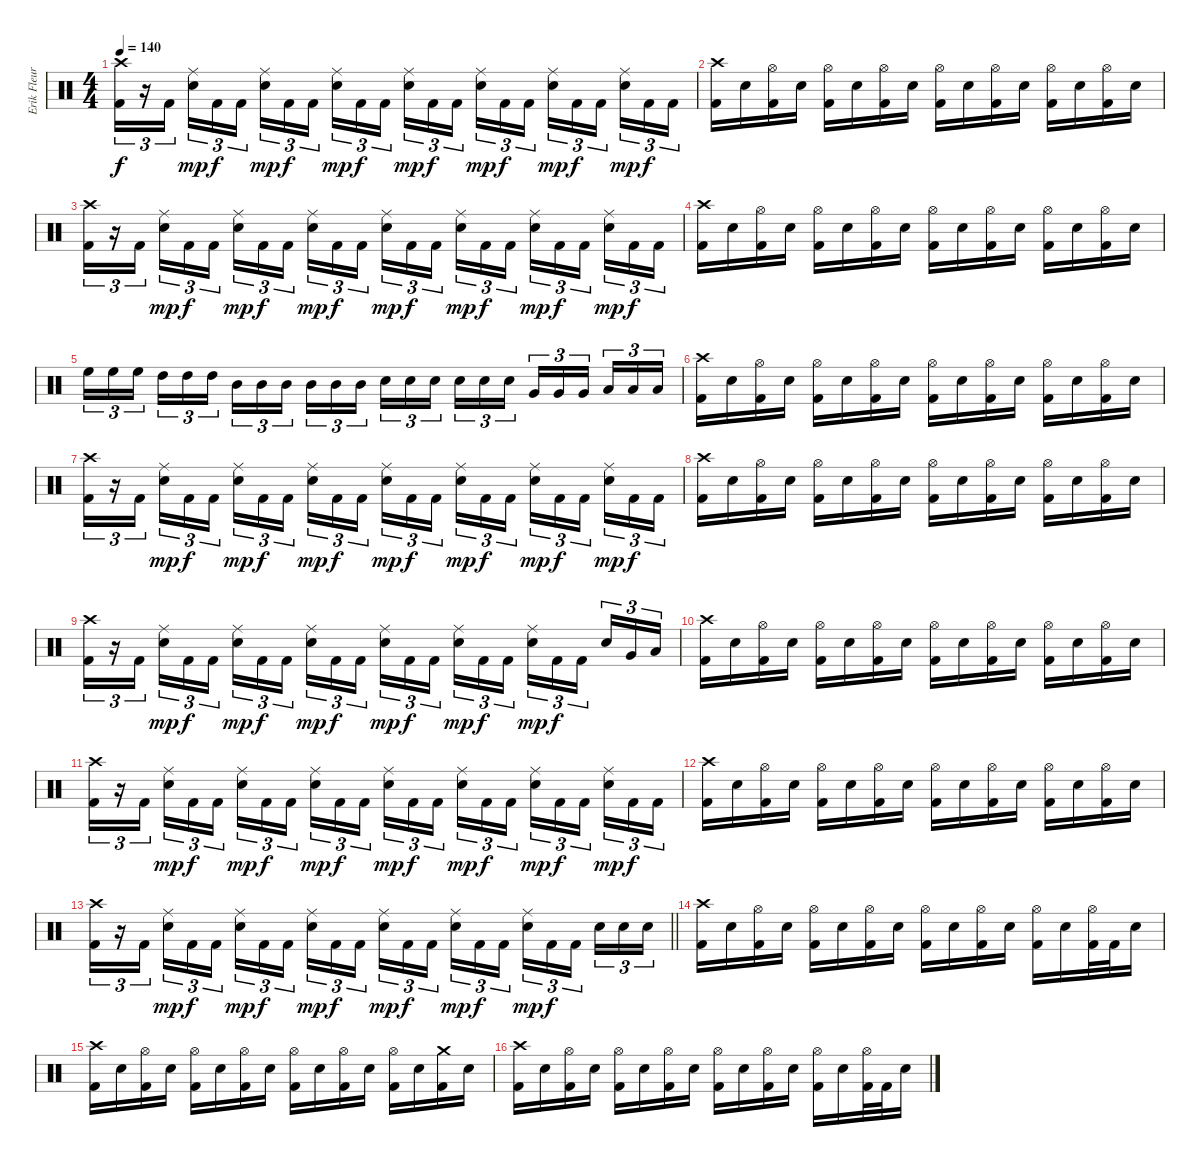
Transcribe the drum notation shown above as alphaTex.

\track ("Erik Fleuren" "Erik Fleur") {instrument percussion}
\staff {score}
\articulation defaults
\ts (4 4)
\tempo 140
\clef neutral
\ks c
("Crash high (hit)" "Kick (hit) 2").16{tu (3 2) dy f} r.16{tu (3 2)} "Kick (hit) 2".16{tu (3 2) beam splitsecondary} ("Ride (middle)" "Electric Snare (hit)").16{tu (3 2) dy mp} "Kick (hit) 2".16{tu (3 2) dy f} "Kick (hit) 2".16{tu (3 2)} ("Ride (middle)" "Electric Snare (hit)").16{tu (3 2) dy mp} "Kick (hit) 2".16{tu (3 2) dy f} "Kick (hit) 2".16{tu (3 2) beam splitsecondary} ("Ride (middle)" "Electric Snare (hit)").16{tu (3 2) dy mp} "Kick (hit) 2".16{tu (3 2) dy f} "Kick (hit) 2".16{tu (3 2)} ("Ride (middle)" "Electric Snare (hit)").16{tu (3 2) dy mp} "Kick (hit) 2".16{tu (3 2) dy f} "Kick (hit) 2".16{tu (3 2) beam splitsecondary} ("Ride (middle)" "Electric Snare (hit)").16{tu (3 2) dy mp} "Kick (hit) 2".16{tu (3 2) dy f} "Kick (hit) 2".16{tu (3 2)} ("Ride (middle)" "Electric Snare (hit)").16{tu (3 2) dy mp} "Kick (hit) 2".16{tu (3 2) dy f} "Kick (hit) 2".16{tu (3 2) beam splitsecondary} ("Ride (middle)" "Electric Snare (hit)").16{tu (3 2) dy mp} "Kick (hit) 2".16{tu (3 2) dy f} "Kick (hit) 2".16{tu (3 2)} |
("Crash high (hit)" "Kick (hit) 2").16 "Electric Snare (hit)".16 ("Hi-Hat (open)" "Kick (hit) 2").16 "Electric Snare (hit)".16 ("Hi-Hat (open)" "Kick (hit) 2").16 "Electric Snare (hit)".16 ("Hi-Hat (open)" "Kick (hit) 2").16 "Electric Snare (hit)".16 ("Hi-Hat (open)" "Kick (hit) 2").16 "Electric Snare (hit)".16 ("Hi-Hat (open)" "Kick (hit) 2").16 "Electric Snare (hit)".16 ("Hi-Hat (open)" "Kick (hit) 2").16 "Electric Snare (hit)".16 ("Hi-Hat (open)" "Kick (hit) 2").16 "Electric Snare (hit)".16 |
("Crash high (hit)" "Kick (hit) 2").16{tu (3 2)} r.16{tu (3 2)} "Kick (hit) 2".16{tu (3 2) beam splitsecondary} ("Ride (middle)" "Electric Snare (hit)").16{tu (3 2) dy mp} "Kick (hit) 2".16{tu (3 2) dy f} "Kick (hit) 2".16{tu (3 2)} ("Ride (middle)" "Electric Snare (hit)").16{tu (3 2) dy mp} "Kick (hit) 2".16{tu (3 2) dy f} "Kick (hit) 2".16{tu (3 2) beam splitsecondary} ("Ride (middle)" "Electric Snare (hit)").16{tu (3 2) dy mp} "Kick (hit) 2".16{tu (3 2) dy f} "Kick (hit) 2".16{tu (3 2)} ("Ride (middle)" "Electric Snare (hit)").16{tu (3 2) dy mp} "Kick (hit) 2".16{tu (3 2) dy f} "Kick (hit) 2".16{tu (3 2) beam splitsecondary} ("Ride (middle)" "Electric Snare (hit)").16{tu (3 2) dy mp} "Kick (hit) 2".16{tu (3 2) dy f} "Kick (hit) 2".16{tu (3 2)} ("Ride (middle)" "Electric Snare (hit)").16{tu (3 2) dy mp} "Kick (hit) 2".16{tu (3 2) dy f} "Kick (hit) 2".16{tu (3 2) beam splitsecondary} ("Ride (middle)" "Electric Snare (hit)").16{tu (3 2) dy mp} "Kick (hit) 2".16{tu (3 2) dy f} "Kick (hit) 2".16{tu (3 2)} |
("Crash high (hit)" "Kick (hit) 2").16 "Electric Snare (hit)".16 ("Hi-Hat (open)" "Kick (hit) 2").16 "Electric Snare (hit)".16 ("Hi-Hat (open)" "Kick (hit) 2").16 "Electric Snare (hit)".16 ("Hi-Hat (open)" "Kick (hit) 2").16 "Electric Snare (hit)".16 ("Hi-Hat (open)" "Kick (hit) 2").16 "Electric Snare (hit)".16 ("Hi-Hat (open)" "Kick (hit) 2").16 "Electric Snare (hit)".16 ("Hi-Hat (open)" "Kick (hit) 2").16 "Electric Snare (hit)".16 ("Hi-Hat (open)" "Kick (hit) 2").16 "Electric Snare (hit)".16 |
"High Floor Tom (hit)".16{tu (3 2)} "High Floor Tom (hit)".16{tu (3 2)} "High Floor Tom (hit)".16{tu (3 2) beam splitsecondary} "High Tom (hit)".16{tu (3 2)} "High Tom (hit)".16{tu (3 2)} "High Tom (hit)".16{tu (3 2)} "Mid Tom (hit)".16{tu (3 2)} "Mid Tom (hit)".16{tu (3 2)} "Mid Tom (hit)".16{tu (3 2) beam splitsecondary} "Mid Tom (hit)".16{tu (3 2)} "Mid Tom (hit)".16{tu (3 2)} "Mid Tom (hit)".16{tu (3 2)} "Electric Snare (hit)".16{tu (3 2)} "Electric Snare (hit)".16{tu (3 2)} "Electric Snare (hit)".16{tu (3 2) beam splitsecondary} "Electric Snare (hit)".16{tu (3 2)} "Electric Snare (hit)".16{tu (3 2)} "Electric Snare (hit)".16{tu (3 2)} "Very Low Tom (hit)".16{tu (3 2)} "Very Low Tom (hit)".16{tu (3 2)} "Very Low Tom (hit)".16{tu (3 2) beam splitsecondary} "Low Floor Tom (hit)".16{tu (3 2)} "Low Floor Tom (hit)".16{tu (3 2)} "Low Floor Tom (hit)".16{tu (3 2)} |
("Crash high (hit)" "Kick (hit) 2").16 "Electric Snare (hit)".16 ("Hi-Hat (open)" "Kick (hit) 2").16 "Electric Snare (hit)".16 ("Hi-Hat (open)" "Kick (hit) 2").16 "Electric Snare (hit)".16 ("Hi-Hat (open)" "Kick (hit) 2").16 "Electric Snare (hit)".16 ("Hi-Hat (open)" "Kick (hit) 2").16 "Electric Snare (hit)".16 ("Hi-Hat (open)" "Kick (hit) 2").16 "Electric Snare (hit)".16 ("Hi-Hat (open)" "Kick (hit) 2").16 "Electric Snare (hit)".16 ("Hi-Hat (open)" "Kick (hit) 2").16 "Electric Snare (hit)".16 |
("Crash high (hit)" "Kick (hit) 2").16{tu (3 2)} r.16{tu (3 2)} "Kick (hit) 2".16{tu (3 2) beam splitsecondary} ("Ride (middle)" "Electric Snare (hit)").16{tu (3 2) dy mp} "Kick (hit) 2".16{tu (3 2) dy f} "Kick (hit) 2".16{tu (3 2)} ("Ride (middle)" "Electric Snare (hit)").16{tu (3 2) dy mp} "Kick (hit) 2".16{tu (3 2) dy f} "Kick (hit) 2".16{tu (3 2) beam splitsecondary} ("Ride (middle)" "Electric Snare (hit)").16{tu (3 2) dy mp} "Kick (hit) 2".16{tu (3 2) dy f} "Kick (hit) 2".16{tu (3 2)} ("Ride (middle)" "Electric Snare (hit)").16{tu (3 2) dy mp} "Kick (hit) 2".16{tu (3 2) dy f} "Kick (hit) 2".16{tu (3 2) beam splitsecondary} ("Ride (middle)" "Electric Snare (hit)").16{tu (3 2) dy mp} "Kick (hit) 2".16{tu (3 2) dy f} "Kick (hit) 2".16{tu (3 2)} ("Ride (middle)" "Electric Snare (hit)").16{tu (3 2) dy mp} "Kick (hit) 2".16{tu (3 2) dy f} "Kick (hit) 2".16{tu (3 2) beam splitsecondary} ("Ride (middle)" "Electric Snare (hit)").16{tu (3 2) dy mp} "Kick (hit) 2".16{tu (3 2) dy f} "Kick (hit) 2".16{tu (3 2)} |
("Crash high (hit)" "Kick (hit) 2").16 "Electric Snare (hit)".16 ("Hi-Hat (open)" "Kick (hit) 2").16 "Electric Snare (hit)".16 ("Hi-Hat (open)" "Kick (hit) 2").16 "Electric Snare (hit)".16 ("Hi-Hat (open)" "Kick (hit) 2").16 "Electric Snare (hit)".16 ("Hi-Hat (open)" "Kick (hit) 2").16 "Electric Snare (hit)".16 ("Hi-Hat (open)" "Kick (hit) 2").16 "Electric Snare (hit)".16 ("Hi-Hat (open)" "Kick (hit) 2").16 "Electric Snare (hit)".16 ("Hi-Hat (open)" "Kick (hit) 2").16 "Electric Snare (hit)".16 |
("Crash high (hit)" "Kick (hit) 2").16{tu (3 2)} r.16{tu (3 2)} "Kick (hit) 2".16{tu (3 2) beam splitsecondary} ("Ride (middle)" "Electric Snare (hit)").16{tu (3 2) dy mp} "Kick (hit) 2".16{tu (3 2) dy f} "Kick (hit) 2".16{tu (3 2)} ("Ride (middle)" "Electric Snare (hit)").16{tu (3 2) dy mp} "Kick (hit) 2".16{tu (3 2) dy f} "Kick (hit) 2".16{tu (3 2) beam splitsecondary} ("Ride (middle)" "Electric Snare (hit)").16{tu (3 2) dy mp} "Kick (hit) 2".16{tu (3 2) dy f} "Kick (hit) 2".16{tu (3 2)} ("Ride (middle)" "Electric Snare (hit)").16{tu (3 2) dy mp} "Kick (hit) 2".16{tu (3 2) dy f} "Kick (hit) 2".16{tu (3 2) beam splitsecondary} ("Ride (middle)" "Electric Snare (hit)").16{tu (3 2) dy mp} "Kick (hit) 2".16{tu (3 2) dy f} "Kick (hit) 2".16{tu (3 2)} ("Ride (middle)" "Electric Snare (hit)").16{tu (3 2) dy mp} "Kick (hit) 2".16{tu (3 2) dy f} "Kick (hit) 2".16{tu (3 2) beam splitsecondary} "Electric Snare (hit)".16{tu (3 2)} "Very Low Tom (hit)".16{tu (3 2)} "Low Floor Tom (hit)".16{tu (3 2)} |
("Crash high (hit)" "Kick (hit) 2").16 "Electric Snare (hit)".16 ("Hi-Hat (open)" "Kick (hit) 2").16 "Electric Snare (hit)".16 ("Hi-Hat (open)" "Kick (hit) 2").16 "Electric Snare (hit)".16 ("Hi-Hat (open)" "Kick (hit) 2").16 "Electric Snare (hit)".16 ("Hi-Hat (open)" "Kick (hit) 2").16 "Electric Snare (hit)".16 ("Hi-Hat (open)" "Kick (hit) 2").16 "Electric Snare (hit)".16 ("Hi-Hat (open)" "Kick (hit) 2").16 "Electric Snare (hit)".16 ("Hi-Hat (open)" "Kick (hit) 2").16 "Electric Snare (hit)".16 |
("Crash high (hit)" "Kick (hit) 2").16{tu (3 2)} r.16{tu (3 2)} "Kick (hit) 2".16{tu (3 2) beam splitsecondary} ("Ride (middle)" "Electric Snare (hit)").16{tu (3 2) dy mp} "Kick (hit) 2".16{tu (3 2) dy f} "Kick (hit) 2".16{tu (3 2)} ("Ride (middle)" "Electric Snare (hit)").16{tu (3 2) dy mp} "Kick (hit) 2".16{tu (3 2) dy f} "Kick (hit) 2".16{tu (3 2) beam splitsecondary} ("Ride (middle)" "Electric Snare (hit)").16{tu (3 2) dy mp} "Kick (hit) 2".16{tu (3 2) dy f} "Kick (hit) 2".16{tu (3 2)} ("Ride (middle)" "Electric Snare (hit)").16{tu (3 2) dy mp} "Kick (hit) 2".16{tu (3 2) dy f} "Kick (hit) 2".16{tu (3 2) beam splitsecondary} ("Ride (middle)" "Electric Snare (hit)").16{tu (3 2) dy mp} "Kick (hit) 2".16{tu (3 2) dy f} "Kick (hit) 2".16{tu (3 2)} ("Ride (middle)" "Electric Snare (hit)").16{tu (3 2) dy mp} "Kick (hit) 2".16{tu (3 2) dy f} "Kick (hit) 2".16{tu (3 2) beam splitsecondary} ("Ride (middle)" "Electric Snare (hit)").16{tu (3 2) dy mp} "Kick (hit) 2".16{tu (3 2) dy f} "Kick (hit) 2".16{tu (3 2)} |
("Crash high (hit)" "Kick (hit) 2").16 "Electric Snare (hit)".16 ("Hi-Hat (open)" "Kick (hit) 2").16 "Electric Snare (hit)".16 ("Hi-Hat (open)" "Kick (hit) 2").16 "Electric Snare (hit)".16 ("Hi-Hat (open)" "Kick (hit) 2").16 "Electric Snare (hit)".16 ("Hi-Hat (open)" "Kick (hit) 2").16 "Electric Snare (hit)".16 ("Hi-Hat (open)" "Kick (hit) 2").16 "Electric Snare (hit)".16 ("Hi-Hat (open)" "Kick (hit) 2").16 "Electric Snare (hit)".16 ("Hi-Hat (open)" "Kick (hit) 2").16 "Electric Snare (hit)".16 |
\barLineRight lightlight
("Crash high (hit)" "Kick (hit) 2").16{tu (3 2)} r.16{tu (3 2)} "Kick (hit) 2".16{tu (3 2) beam splitsecondary} ("Ride (middle)" "Electric Snare (hit)").16{tu (3 2) dy mp} "Kick (hit) 2".16{tu (3 2) dy f} "Kick (hit) 2".16{tu (3 2)} ("Ride (middle)" "Electric Snare (hit)").16{tu (3 2) dy mp} "Kick (hit) 2".16{tu (3 2) dy f} "Kick (hit) 2".16{tu (3 2) beam splitsecondary} ("Ride (middle)" "Electric Snare (hit)").16{tu (3 2) dy mp} "Kick (hit) 2".16{tu (3 2) dy f} "Kick (hit) 2".16{tu (3 2)} ("Ride (middle)" "Electric Snare (hit)").16{tu (3 2) dy mp} "Kick (hit) 2".16{tu (3 2) dy f} "Kick (hit) 2".16{tu (3 2) beam splitsecondary} ("Ride (middle)" "Electric Snare (hit)").16{tu (3 2) dy mp} "Kick (hit) 2".16{tu (3 2) dy f} "Kick (hit) 2".16{tu (3 2)} ("Ride (middle)" "Electric Snare (hit)").16{tu (3 2) dy mp} "Kick (hit) 2".16{tu (3 2) dy f} "Kick (hit) 2".16{tu (3 2) beam splitsecondary} "Electric Snare (hit)".16{tu (3 2)} "Electric Snare (hit)".16{tu (3 2)} "Electric Snare (hit)".16{tu (3 2)} |
("Crash high (hit)" "Kick (hit) 2").16 "Electric Snare (hit)".16 ("Hi-Hat (open)" "Kick (hit) 2").16 "Electric Snare (hit)".16 ("Hi-Hat (open)" "Kick (hit) 2").16 "Electric Snare (hit)".16 ("Hi-Hat (open)" "Kick (hit) 2").16 "Electric Snare (hit)".16 ("Hi-Hat (open)" "Kick (hit) 2").16 "Electric Snare (hit)".16 ("Hi-Hat (open)" "Kick (hit) 2").16 "Electric Snare (hit)".16 ("Hi-Hat (open)" "Kick (hit) 2").16 "Electric Snare (hit)".16 ("Hi-Hat (open)" "Kick (hit) 2").32 "Kick (hit) 2".32 "Electric Snare (hit)".16 |
("Crash high (hit)" "Kick (hit) 2").16 "Electric Snare (hit)".16 ("Hi-Hat (open)" "Kick (hit) 2").16 "Electric Snare (hit)".16 ("Hi-Hat (open)" "Kick (hit) 2").16 "Electric Snare (hit)".16 ("Hi-Hat (open)" "Kick (hit) 2").16 "Electric Snare (hit)".16 ("Hi-Hat (open)" "Kick (hit) 2").16 "Electric Snare (hit)".16 ("Hi-Hat (open)" "Kick (hit) 2").16 "Electric Snare (hit)".16 ("Hi-Hat (open)" "Kick (hit) 2").16 "Electric Snare (hit)".16 ("Crash medium (hit)" "Kick (hit) 2").16 "Electric Snare (hit)".16 |
("Crash high (hit)" "Kick (hit) 2").16 "Electric Snare (hit)".16 ("Hi-Hat (open)" "Kick (hit) 2").16 "Electric Snare (hit)".16 ("Hi-Hat (open)" "Kick (hit) 2").16 "Electric Snare (hit)".16 ("Hi-Hat (open)" "Kick (hit) 2").16 "Electric Snare (hit)".16 ("Hi-Hat (open)" "Kick (hit) 2").16 "Electric Snare (hit)".16 ("Hi-Hat (open)" "Kick (hit) 2").16 "Electric Snare (hit)".16 ("Hi-Hat (open)" "Kick (hit) 2").16 "Electric Snare (hit)".16 ("Hi-Hat (open)" "Kick (hit) 2").32 "Kick (hit) 2".32 "Electric Snare (hit)".16
